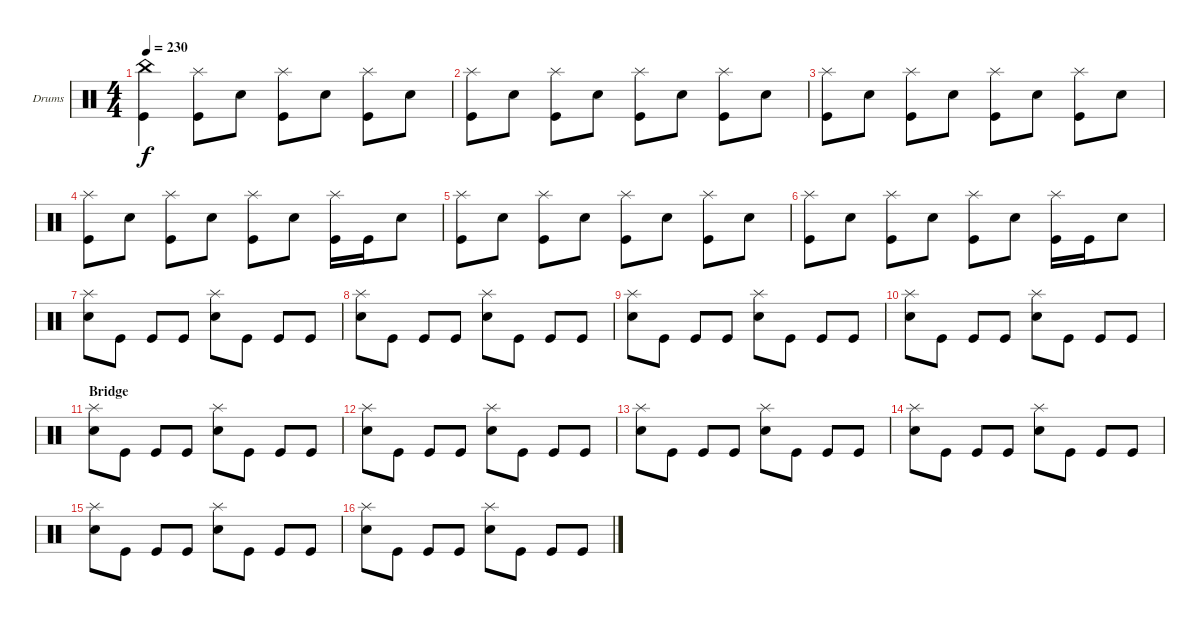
\defaultSystemsLayout 4
\bracketExtendMode groupsimilarinstruments
\firstSystemTrackNameOrientation horizontal
\otherSystemsTrackNameOrientation horizontal
\track ("Drumkit" "Drums") {instrument percussion}
\staff {score}
\articulation defaults
\ts (4 4)
\tempo 230
\clef neutral
\ks c
("China (hit)" "Kick (hit)").4{dy f} ("Kick (hit)" "Splash (hit)").8 "Snare (hit) 2".8 ("Kick (hit)" "Splash (hit)").8 "Snare (hit) 2".8 ("Kick (hit)" "Splash (hit)").8 "Snare (hit) 2".8 |
("Kick (hit)" "Splash (hit)").8 "Snare (hit) 2".8 ("Kick (hit)" "Splash (hit)").8 "Snare (hit) 2".8 ("Kick (hit)" "Splash (hit)").8 "Snare (hit) 2".8 ("Kick (hit)" "Splash (hit)").8 "Snare (hit) 2".8 |
("Kick (hit)" "Splash (hit)").8 "Snare (hit) 2".8 ("Kick (hit)" "Splash (hit)").8 "Snare (hit) 2".8 ("Kick (hit)" "Splash (hit)").8 "Snare (hit) 2".8 ("Kick (hit)" "Splash (hit)").8 "Snare (hit) 2".8 |
("Kick (hit)" "Splash (hit)").8 "Snare (hit) 2".8 ("Kick (hit)" "Splash (hit)").8 "Snare (hit) 2".8 ("Kick (hit)" "Splash (hit)").8 "Snare (hit) 2".8 ("Kick (hit)" "Splash (hit)").16 "Kick (hit)".16 "Snare (hit) 2".8 |
("Kick (hit)" "Splash (hit)").8 "Snare (hit) 2".8 ("Kick (hit)" "Splash (hit)").8 "Snare (hit) 2".8 ("Kick (hit)" "Splash (hit)").8 "Snare (hit) 2".8 ("Kick (hit)" "Splash (hit)").8 "Snare (hit) 2".8 |
("Kick (hit)" "Splash (hit)").8 "Snare (hit) 2".8 ("Kick (hit)" "Splash (hit)").8 "Snare (hit) 2".8 ("Kick (hit)" "Splash (hit)").8 "Snare (hit) 2".8 ("Kick (hit)" "Splash (hit)").16 "Kick (hit)".16 "Snare (hit) 2".8 |
("Splash (hit)" "Snare (hit) 2").8 "Kick (hit)".8 "Kick (hit)".8 "Kick (hit)".8 ("Snare (hit) 2" "Splash (hit)").8 "Kick (hit)".8 "Kick (hit)".8 "Kick (hit)".8 |
("Splash (hit)" "Snare (hit) 2").8 "Kick (hit)".8 "Kick (hit)".8 "Kick (hit)".8 ("Snare (hit) 2" "Splash (hit)").8 "Kick (hit)".8 "Kick (hit)".8 "Kick (hit)".8 |
("Splash (hit)" "Snare (hit) 2").8 "Kick (hit)".8 "Kick (hit)".8 "Kick (hit)".8 ("Snare (hit) 2" "Splash (hit)").8 "Kick (hit)".8 "Kick (hit)".8 "Kick (hit)".8 |
("Splash (hit)" "Snare (hit) 2").8 "Kick (hit)".8 "Kick (hit)".8 "Kick (hit)".8 ("Snare (hit) 2" "Splash (hit)").8 "Kick (hit)".8 "Kick (hit)".8 "Kick (hit)".8 |
\section ("" "Bridge")
("Splash (hit)" "Snare (hit) 2").8 "Kick (hit)".8 "Kick (hit)".8 "Kick (hit)".8 ("Snare (hit) 2" "Splash (hit)").8 "Kick (hit)".8 "Kick (hit)".8 "Kick (hit)".8 |
("Splash (hit)" "Snare (hit) 2").8 "Kick (hit)".8 "Kick (hit)".8 "Kick (hit)".8 ("Snare (hit) 2" "Splash (hit)").8 "Kick (hit)".8 "Kick (hit)".8 "Kick (hit)".8 |
("Splash (hit)" "Snare (hit) 2").8 "Kick (hit)".8 "Kick (hit)".8 "Kick (hit)".8 ("Snare (hit) 2" "Splash (hit)").8 "Kick (hit)".8 "Kick (hit)".8 "Kick (hit)".8 |
("Splash (hit)" "Snare (hit) 2").8 "Kick (hit)".8 "Kick (hit)".8 "Kick (hit)".8 ("Snare (hit) 2" "Splash (hit)").8 "Kick (hit)".8 "Kick (hit)".8 "Kick (hit)".8 |
("Splash (hit)" "Snare (hit) 2").8 "Kick (hit)".8 "Kick (hit)".8 "Kick (hit)".8 ("Snare (hit) 2" "Splash (hit)").8 "Kick (hit)".8 "Kick (hit)".8 "Kick (hit)".8 |
("Splash (hit)" "Snare (hit) 2").8 "Kick (hit)".8 "Kick (hit)".8 "Kick (hit)".8 ("Snare (hit) 2" "Splash (hit)").8 "Kick (hit)".8 "Kick (hit)".8 "Kick (hit)".8
